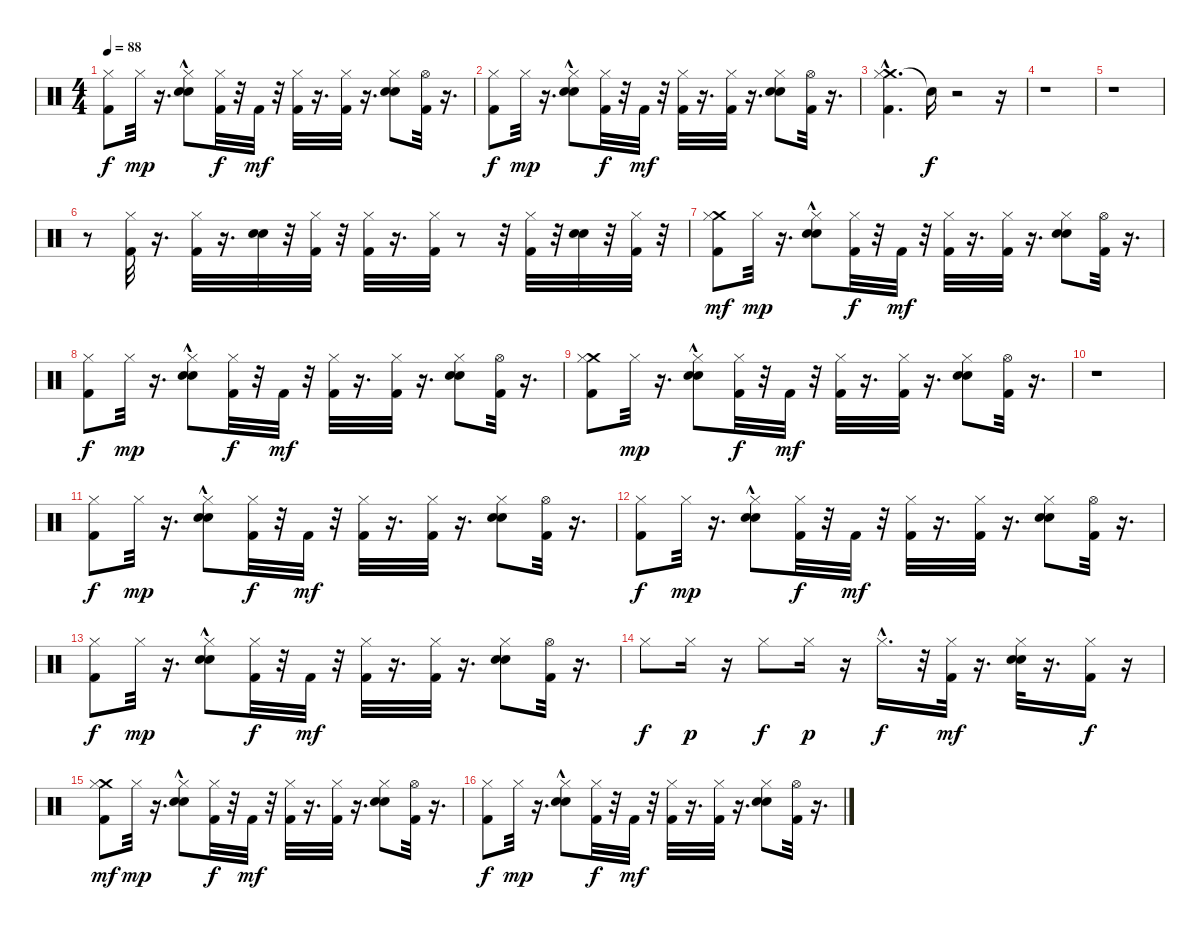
\track "" {instrument percussion}
\staff {score}
\articulation defaults
\ts (4 4)
\tempo 88
\clef neutral
\ks c
("Hi-Hat (closed)" "Kick (hit) 2").8{dy f} "Hi-Hat (closed)".32{dy mp} r.16{d} ("Hi-Hat (closed)" "Hand Clap (hit)" "Electric Snare (hit)"{hac}).8 ("Hi-Hat (closed)" "Kick (hit) 2").32{dy f} r.32 "Kick (hit) 2".32{dy mf} r.32 ("Kick (hit) 2" "Hi-Hat (closed)").32 r.16{d} ("Hi-Hat (closed)" "Kick (hit) 2").32 r.16{d} ("Electric Snare (hit)" "Hi-Hat (closed)" "Hand Clap (hit)").8 ("Hi-Hat (open)" "Kick (hit) 2").32 r.16{d} |
("Hi-Hat (closed)" "Kick (hit) 2").8{dy f} "Hi-Hat (closed)".32{dy mp} r.16{d} ("Hi-Hat (closed)" "Hand Clap (hit)" "Electric Snare (hit)"{hac}).8 ("Kick (hit) 2" "Hi-Hat (closed)").32{dy f} r.32 "Kick (hit) 2".32{dy mf} r.32 ("Kick (hit) 2" "Hi-Hat (closed)").32 r.16{d} ("Kick (hit) 2" "Hi-Hat (closed)").32 r.16{d} ("Electric Snare (hit)" "Hi-Hat (closed)" "Hand Clap (hit)").8 ("Hi-Hat (open)" "Kick (hit) 2").32 r.16{d} |
("Crash medium (hit)"{hac} "Hi-Hat (closed)" "Kick (hit) 2").4{d} "Snare (hit)"{t}.16{dy f} r.2 r.16 |
r.1 |
r.1 |
r.8 ("Hi-Hat (closed)" "Kick (hit) 2").32 r.16{d} ("Hi-Hat (closed)" "Kick (hit) 2").32 r.16{d} ("Hand Clap (hit)" "Electric Snare (hit)").32 r.32 ("Hi-Hat (closed)" "Kick (hit) 2").32 r.32 ("Hi-Hat (closed)" "Kick (hit) 2").32 r.16{d} ("Hi-Hat (closed)" "Kick (hit) 2").32 r.8 r.32 ("Kick (hit) 2" "Hi-Hat (closed)").32 r.32 ("Hand Clap (hit)" "Electric Snare (hit)").32 r.32 ("Kick (hit) 2" "Hi-Hat (closed)").32 r.32 |
("Crash medium (hit)" "Hi-Hat (closed)" "Kick (hit) 2").8{dy mf} "Hi-Hat (closed)".32{dy mp} r.16{d} ("Hi-Hat (closed)" "Hand Clap (hit)" "Electric Snare (hit)"{hac}).8 ("Hi-Hat (closed)" "Kick (hit) 2").32{dy f} r.32 "Kick (hit) 2".32{dy mf} r.32 ("Kick (hit) 2" "Hi-Hat (closed)").32 r.16{d} ("Hi-Hat (closed)" "Kick (hit) 2").32 r.16{d} ("Electric Snare (hit)" "Hi-Hat (closed)" "Hand Clap (hit)").8 ("Hi-Hat (open)" "Kick (hit) 2").32 r.16{d} |
("Hi-Hat (closed)" "Kick (hit) 2").8{dy f} "Hi-Hat (closed)".32{dy mp} r.16{d} ("Hi-Hat (closed)" "Hand Clap (hit)" "Electric Snare (hit)"{hac}).8 ("Kick (hit) 2" "Hi-Hat (closed)").32{dy f} r.32 "Kick (hit) 2".32{dy mf} r.32 ("Kick (hit) 2" "Hi-Hat (closed)").32 r.16{d} ("Kick (hit) 2" "Hi-Hat (closed)").32 r.16{d} ("Electric Snare (hit)" "Hi-Hat (closed)" "Hand Clap (hit)").8 ("Hi-Hat (open)" "Kick (hit) 2").32 r.16{d} |
("Crash medium (hit)" "Hi-Hat (closed)" "Kick (hit) 2").8 "Hi-Hat (closed)".32{dy mp} r.16{d} ("Hi-Hat (closed)" "Hand Clap (hit)" "Electric Snare (hit)"{hac}).8 ("Hi-Hat (closed)" "Kick (hit) 2").32{dy f} r.32 "Kick (hit) 2".32{dy mf} r.32 ("Kick (hit) 2" "Hi-Hat (closed)").32 r.16{d} ("Hi-Hat (closed)" "Kick (hit) 2").32 r.16{d} ("Electric Snare (hit)" "Hi-Hat (closed)" "Hand Clap (hit)").8 ("Hi-Hat (open)" "Kick (hit) 2").32 r.16{d} |
r.1 |
("Hi-Hat (closed)" "Kick (hit) 2").8{dy f} "Hi-Hat (closed)".32{dy mp} r.16{d} ("Hi-Hat (closed)" "Hand Clap (hit)" "Electric Snare (hit)"{hac}).8 ("Hi-Hat (closed)" "Kick (hit) 2").32{dy f} r.32 "Kick (hit) 2".32{dy mf} r.32 ("Kick (hit) 2" "Hi-Hat (closed)").32 r.16{d} ("Hi-Hat (closed)" "Kick (hit) 2").32 r.16{d} ("Electric Snare (hit)" "Hi-Hat (closed)" "Hand Clap (hit)").8 ("Hi-Hat (open)" "Kick (hit) 2").32 r.16{d} |
("Hi-Hat (closed)" "Kick (hit) 2").8{dy f} "Hi-Hat (closed)".32{dy mp} r.16{d} ("Hi-Hat (closed)" "Hand Clap (hit)" "Electric Snare (hit)"{hac}).8 ("Kick (hit) 2" "Hi-Hat (closed)").32{dy f} r.32 "Kick (hit) 2".32{dy mf} r.32 ("Kick (hit) 2" "Hi-Hat (closed)").32 r.16{d} ("Kick (hit) 2" "Hi-Hat (closed)").32 r.16{d} ("Electric Snare (hit)" "Hi-Hat (closed)" "Hand Clap (hit)").8 ("Hi-Hat (open)" "Kick (hit) 2").32 r.16{d} |
("Hi-Hat (closed)" "Kick (hit) 2").8{dy f} "Hi-Hat (closed)".32{dy mp} r.16{d} ("Hi-Hat (closed)" "Hand Clap (hit)" "Electric Snare (hit)"{hac}).8 ("Hi-Hat (closed)" "Kick (hit) 2").32{dy f} r.32 "Kick (hit) 2".32{dy mf} r.32 ("Kick (hit) 2" "Hi-Hat (closed)").32 r.16{d} ("Hi-Hat (closed)" "Kick (hit) 2").32 r.16{d} ("Electric Snare (hit)" "Hi-Hat (closed)" "Hand Clap (hit)").8 ("Hi-Hat (open)" "Kick (hit) 2").32 r.16{d} |
"Hi-Hat (closed)".8{dy f} "Hi-Hat (closed)".16{dy p} r.16 "Hi-Hat (closed)".8{dy f} "Hi-Hat (closed)".16{dy p} r.16 "Hi-Hat (closed)"{hac}.16{d dy f} r.32 ("Kick (hit) 2" "Hi-Hat (closed)").32{dy mf} r.16{d} ("Hand Clap (hit)" "Electric Snare (hit)" "Hi-Hat (closed)").32 r.16{d} ("Kick (hit) 2" "Hi-Hat (closed)").16{dy f} r.16 |
("Crash medium (hit)" "Hi-Hat (closed)" "Kick (hit) 2").8{dy mf} "Hi-Hat (closed)".32{dy mp} r.16{d} ("Hi-Hat (closed)" "Hand Clap (hit)" "Electric Snare (hit)"{hac}).8 ("Hi-Hat (closed)" "Kick (hit) 2").32{dy f} r.32 "Kick (hit) 2".32{dy mf} r.32 ("Kick (hit) 2" "Hi-Hat (closed)").32 r.16{d} ("Hi-Hat (closed)" "Kick (hit) 2").32 r.16{d} ("Electric Snare (hit)" "Hi-Hat (closed)" "Hand Clap (hit)").8 ("Hi-Hat (open)" "Kick (hit) 2").32 r.16{d} |
("Hi-Hat (closed)" "Kick (hit) 2").8{dy f} "Hi-Hat (closed)".32{dy mp} r.16{d} ("Hi-Hat (closed)" "Hand Clap (hit)" "Electric Snare (hit)"{hac}).8 ("Kick (hit) 2" "Hi-Hat (closed)").32{dy f} r.32 "Kick (hit) 2".32{dy mf} r.32 ("Kick (hit) 2" "Hi-Hat (closed)").32 r.16{d} ("Kick (hit) 2" "Hi-Hat (closed)").32 r.16{d} ("Electric Snare (hit)" "Hi-Hat (closed)" "Hand Clap (hit)").8 ("Hi-Hat (open)" "Kick (hit) 2").32 r.16{d}
